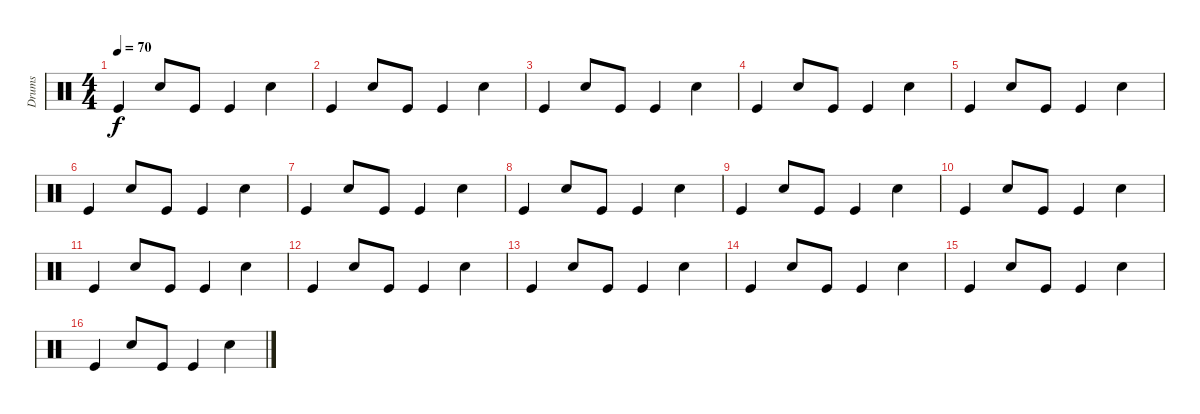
\track ("Drums" "Drums") {instrument percussion}
\staff {score}
\articulation defaults
\ts (4 4)
\tempo 70
\clef neutral
\ks c "Kick (hit)".4{dy f} "Snare (hit) 2".8 "Kick (hit)".8 "Kick (hit)".4 "Snare (hit) 2".4
|
"Kick (hit)".4 "Snare (hit) 2".8 "Kick (hit)".8 "Kick (hit)".4 "Snare (hit) 2".4 |
"Kick (hit)".4 "Snare (hit) 2".8 "Kick (hit)".8 "Kick (hit)".4 "Snare (hit) 2".4 |
"Kick (hit)".4 "Snare (hit) 2".8 "Kick (hit)".8 "Kick (hit)".4 "Snare (hit) 2".4 |
"Kick (hit)".4 "Snare (hit) 2".8 "Kick (hit)".8 "Kick (hit)".4 "Snare (hit) 2".4 |
"Kick (hit)".4 "Snare (hit) 2".8 "Kick (hit)".8 "Kick (hit)".4 "Snare (hit) 2".4 |
"Kick (hit)".4 "Snare (hit) 2".8 "Kick (hit)".8 "Kick (hit)".4 "Snare (hit) 2".4 |
"Kick (hit)".4 "Snare (hit) 2".8 "Kick (hit)".8 "Kick (hit)".4 "Snare (hit) 2".4 |
"Kick (hit)".4 "Snare (hit) 2".8 "Kick (hit)".8 "Kick (hit)".4 "Snare (hit) 2".4 |
"Kick (hit)".4 "Snare (hit) 2".8 "Kick (hit)".8 "Kick (hit)".4 "Snare (hit) 2".4 |
"Kick (hit)".4 "Snare (hit) 2".8 "Kick (hit)".8 "Kick (hit)".4 "Snare (hit) 2".4 |
"Kick (hit)".4 "Snare (hit) 2".8 "Kick (hit)".8 "Kick (hit)".4 "Snare (hit) 2".4 |
"Kick (hit)".4 "Snare (hit) 2".8 "Kick (hit)".8 "Kick (hit)".4 "Snare (hit) 2".4 |
"Kick (hit)".4 "Snare (hit) 2".8 "Kick (hit)".8 "Kick (hit)".4 "Snare (hit) 2".4 |
"Kick (hit)".4 "Snare (hit) 2".8 "Kick (hit)".8 "Kick (hit)".4 "Snare (hit) 2".4 |
"Kick (hit)".4 "Snare (hit) 2".8 "Kick (hit)".8 "Kick (hit)".4 "Snare (hit) 2".4
